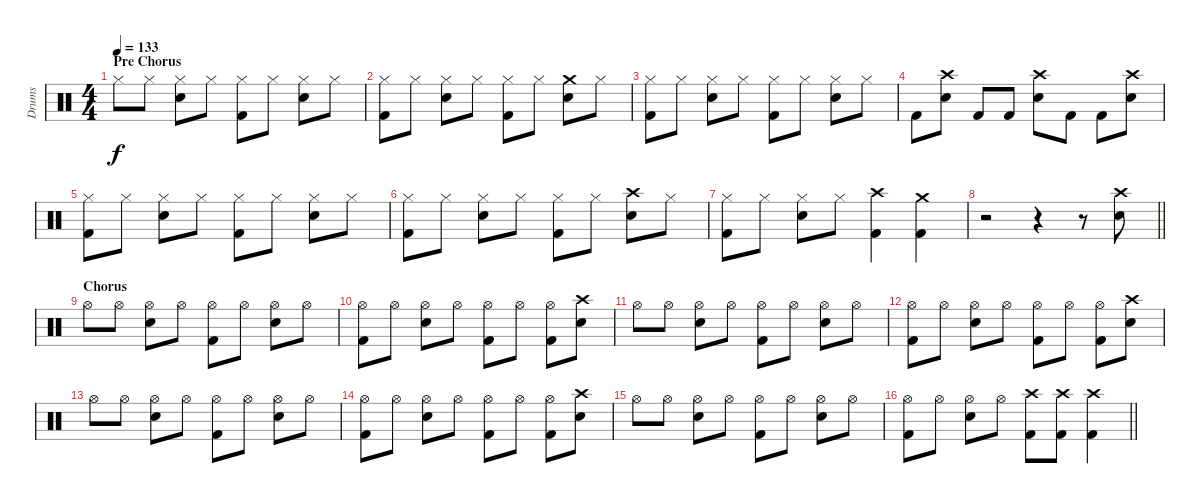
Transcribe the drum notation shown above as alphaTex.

\track ("Drums" "Drums") {instrument percussion}
\staff {score}
\articulation defaults
\ts (4 4)
\section ("" "Pre Chorus")
\tempo 133
\clef neutral
\ks c "Hi-Hat (closed)".8{dy f} "Hi-Hat (closed)".8
("Hi-Hat (closed)" "Snare (hit) 2").8 "Hi-Hat (closed)".8 ("Hi-Hat (closed)" "Kick (hit) 2").8 "Hi-Hat (closed)".8 ("Hi-Hat (closed)" "Snare (hit) 2").8 "Hi-Hat (closed)".8 |
("Hi-Hat (closed)" "Kick (hit) 2").8 "Hi-Hat (closed)".8 ("Hi-Hat (closed)" "Snare (hit) 2").8 "Hi-Hat (closed)".8 ("Hi-Hat (closed)" "Kick (hit) 2").8 "Hi-Hat (closed)".8 ("Crash medium (hit)" "Snare (hit) 2").8 "Hi-Hat (closed)".8 |
("Hi-Hat (closed)" "Kick (hit) 2").8 "Hi-Hat (closed)".8 ("Hi-Hat (closed)" "Snare (hit) 2").8 "Hi-Hat (closed)".8 ("Hi-Hat (closed)" "Kick (hit) 2").8 "Hi-Hat (closed)".8 ("Hi-Hat (closed)" "Snare (hit) 2").8 "Hi-Hat (closed)".8 |
"Kick (hit) 2".8 ("Crash high (hit)" "Snare (hit) 2").8 "Kick (hit) 2".8 "Kick (hit) 2".8 ("Crash high (hit)" "Snare (hit) 2").8 "Kick (hit) 2".8 "Kick (hit) 2".8 ("Crash high (hit)" "Snare (hit) 2").8 |
("Hi-Hat (closed)" "Kick (hit) 2").8 "Hi-Hat (closed)".8 ("Hi-Hat (closed)" "Snare (hit) 2").8 "Hi-Hat (closed)".8 ("Hi-Hat (closed)" "Kick (hit) 2").8 "Hi-Hat (closed)".8 ("Hi-Hat (closed)" "Snare (hit) 2").8 "Hi-Hat (closed)".8 |
("Hi-Hat (closed)" "Kick (hit) 2").8 "Hi-Hat (closed)".8 ("Hi-Hat (closed)" "Snare (hit) 2").8 "Hi-Hat (closed)".8 ("Hi-Hat (closed)" "Kick (hit) 2").8 "Hi-Hat (closed)".8 ("Crash high (hit)" "Snare (hit) 2").8 "Hi-Hat (closed)".8 |
("Hi-Hat (closed)" "Kick (hit) 2").8 "Hi-Hat (closed)".8 ("Hi-Hat (closed)" "Snare (hit) 2").8 "Hi-Hat (closed)".8 ("Crash high (hit)" "Kick (hit) 2").4 ("Crash medium (hit)" "Kick (hit) 2").4 |
\barLineRight lightlight
r.2 r.4 r.8 ("Crash high (hit)" "Snare (hit) 2").8 |
\section ("" "Chorus")
"Hi-Hat (open)".8 "Hi-Hat (open)".8 ("Hi-Hat (open)" "Snare (hit) 2").8 "Hi-Hat (open)".8 ("Hi-Hat (open)" "Kick (hit) 2").8 "Hi-Hat (open)".8 ("Hi-Hat (open)" "Snare (hit) 2").8 "Hi-Hat (open)".8 |
("Hi-Hat (open)" "Kick (hit) 2").8 "Hi-Hat (open)".8 ("Hi-Hat (open)" "Snare (hit) 2").8 "Hi-Hat (open)".8 ("Hi-Hat (open)" "Kick (hit) 2").8 "Hi-Hat (open)".8 ("Hi-Hat (open)" "Kick (hit) 2").8 ("Crash high (hit)" "Snare (hit) 2").8 |
"Hi-Hat (open)".8 "Hi-Hat (open)".8 ("Hi-Hat (open)" "Snare (hit) 2").8 "Hi-Hat (open)".8 ("Hi-Hat (open)" "Kick (hit) 2").8 "Hi-Hat (open)".8 ("Hi-Hat (open)" "Snare (hit) 2").8 "Hi-Hat (open)".8 |
("Hi-Hat (open)" "Kick (hit) 2").8 "Hi-Hat (open)".8 ("Hi-Hat (open)" "Snare (hit) 2").8 "Hi-Hat (open)".8 ("Hi-Hat (open)" "Kick (hit) 2").8 "Hi-Hat (open)".8 ("Hi-Hat (open)" "Kick (hit) 2").8 ("Crash high (hit)" "Snare (hit) 2").8 |
"Hi-Hat (open)".8 "Hi-Hat (open)".8 ("Hi-Hat (open)" "Snare (hit) 2").8 "Hi-Hat (open)".8 ("Hi-Hat (open)" "Kick (hit) 2").8 "Hi-Hat (open)".8 ("Hi-Hat (open)" "Snare (hit) 2").8 "Hi-Hat (open)".8 |
("Hi-Hat (open)" "Kick (hit) 2").8 "Hi-Hat (open)".8 ("Hi-Hat (open)" "Snare (hit) 2").8 "Hi-Hat (open)".8 ("Hi-Hat (open)" "Kick (hit) 2").8 "Hi-Hat (open)".8 ("Hi-Hat (open)" "Kick (hit) 2").8 ("Crash high (hit)" "Snare (hit) 2").8 |
"Hi-Hat (open)".8 "Hi-Hat (open)".8 ("Hi-Hat (open)" "Snare (hit) 2").8 "Hi-Hat (open)".8 ("Hi-Hat (open)" "Kick (hit) 2").8 "Hi-Hat (open)".8 ("Hi-Hat (open)" "Snare (hit) 2").8 "Hi-Hat (open)".8 |
\barLineRight lightlight
("Hi-Hat (open)" "Kick (hit) 2").8 "Hi-Hat (open)".8 ("Hi-Hat (open)" "Snare (hit) 2").8 "Hi-Hat (open)".8 ("Crash high (hit)" "Kick (hit) 2").8 ("Crash high (hit)" "Kick (hit) 2").8 ("Crash high (hit)" "Kick (hit) 2").4
